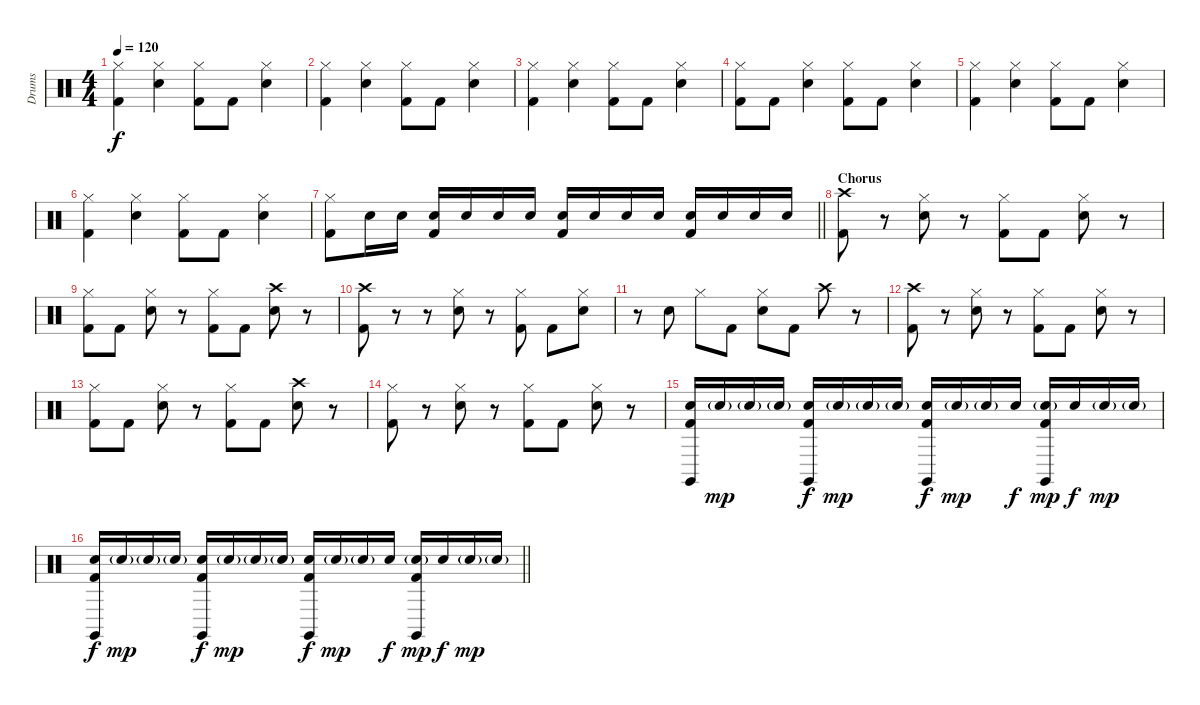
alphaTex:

\track ("Drums" "Drums") {instrument percussion}
\staff {score}
\articulation defaults
\ts (4 4)
\tempo 120
\clef neutral
\ks c
("Hi-Hat (closed)" "Kick (hit) 2").4{dy f} ("Hi-Hat (closed)" "Snare (hit) 2").4 ("Hi-Hat (closed)" "Kick (hit) 2").8 "Kick (hit) 2".8 ("Hi-Hat (closed)" "Snare (hit) 2").4 |
("Hi-Hat (closed)" "Kick (hit) 2").4 ("Hi-Hat (closed)" "Snare (hit) 2").4 ("Hi-Hat (closed)" "Kick (hit) 2").8 "Kick (hit) 2".8 ("Hi-Hat (closed)" "Snare (hit) 2").4 |
("Hi-Hat (closed)" "Kick (hit) 2").4 ("Hi-Hat (closed)" "Snare (hit) 2").4 ("Hi-Hat (closed)" "Kick (hit) 2").8 "Kick (hit) 2".8 ("Hi-Hat (closed)" "Snare (hit) 2").4 |
("Hi-Hat (closed)" "Kick (hit) 2").8 "Kick (hit) 2".8 ("Hi-Hat (closed)" "Snare (hit) 2").4 ("Hi-Hat (closed)" "Kick (hit) 2").8 "Kick (hit) 2".8 ("Hi-Hat (closed)" "Snare (hit) 2").4 |
("Hi-Hat (closed)" "Kick (hit) 2").4 ("Hi-Hat (closed)" "Snare (hit) 2").4 ("Hi-Hat (closed)" "Kick (hit) 2").8 "Kick (hit) 2".8 ("Hi-Hat (closed)" "Snare (hit) 2").4 |
("Hi-Hat (closed)" "Kick (hit) 2").4 ("Hi-Hat (closed)" "Snare (hit) 2").4 ("Hi-Hat (closed)" "Kick (hit) 2").8 "Kick (hit) 2".8 ("Hi-Hat (closed)" "Snare (hit) 2").4 |
\barLineRight lightlight
("Hi-Hat (closed)" "Kick (hit) 2").8 "Snare (hit) 2".16 "Snare (hit) 2".16 ("Snare (hit) 2" "Kick (hit) 2").16 "Snare (hit) 2".16 "Snare (hit) 2".16 "Snare (hit) 2".16 ("Snare (hit) 2" "Kick (hit) 2").16 "Snare (hit) 2".16 "Snare (hit) 2".16 "Snare (hit) 2".16 ("Snare (hit) 2" "Kick (hit) 2").16 "Snare (hit) 2".16 "Snare (hit) 2".16 "Snare (hit) 2".16 |
\section ("" "Chorus")
("Crash high (hit)" "Kick (hit) 2").8 r.8 ("Hi-Hat (closed)" "Snare (hit) 2").8 r.8 ("Hi-Hat (closed)" "Kick (hit) 2").8 "Kick (hit) 2".8 ("Hi-Hat (closed)" "Snare (hit) 2").8 r.8 |
("Hi-Hat (closed)" "Kick (hit) 2").8 "Kick (hit) 2".8 ("Hi-Hat (closed)" "Snare (hit) 2").8 r.8 ("Hi-Hat (closed)" "Kick (hit) 2").8 "Kick (hit) 2".8 ("Crash high (hit)" "Snare (hit) 2").8 r.8 |
("Crash high (hit)" "Kick (hit) 2").8 r.8 r.8 ("Hi-Hat (closed)" "Snare (hit) 2").8 r.8 ("Hi-Hat (closed)" "Kick (hit) 2").8 "Kick (hit) 2".8 ("Hi-Hat (closed)" "Snare (hit) 2").8 |
r.8 "Snare (hit) 2".8 "Hi-Hat (closed)".8 "Kick (hit) 2".8 ("Hi-Hat (closed)" "Snare (hit) 2").8 "Kick (hit) 2".8 "Crash high (hit)".8 r.8 |
("Crash high (hit)" "Kick (hit) 2").8 r.8 ("Hi-Hat (closed)" "Snare (hit) 2").8 r.8 ("Hi-Hat (closed)" "Kick (hit) 2").8 "Kick (hit) 2".8 ("Hi-Hat (closed)" "Snare (hit) 2").8 r.8 |
("Hi-Hat (closed)" "Kick (hit) 2").8 "Kick (hit) 2".8 ("Hi-Hat (closed)" "Snare (hit) 2").8 r.8 ("Hi-Hat (closed)" "Kick (hit) 2").8 "Kick (hit) 2".8 ("Crash high (hit)" "Snare (hit) 2").8 r.8 |
("Hi-Hat (closed)" "Kick (hit) 2").8 r.8 ("Hi-Hat (closed)" "Snare (hit) 2").8 r.8 ("Hi-Hat (closed)" "Kick (hit) 2").8 "Kick (hit) 2".8 ("Hi-Hat (closed)" "Snare (hit) 2").8 r.8 |
("Claves (hit)" "Electric Snare (hit)" "Kick (hit) 2").16{volume 10} "Electric Snare (hit)"{g}.16{dy mp} "Electric Snare (hit)"{g}.16 "Electric Snare (hit)"{g}.16 ("Claves (hit)" "Electric Snare (hit)" "Kick (hit) 2").16{dy f} "Electric Snare (hit)"{g}.16{dy mp} "Electric Snare (hit)"{g}.16 "Electric Snare (hit)"{g}.16 ("Claves (hit)" "Electric Snare (hit)" "Kick (hit) 2").16{dy f} "Electric Snare (hit)"{g}.16{dy mp} "Electric Snare (hit)"{g}.16 "Electric Snare (hit)".16{dy f} ("Claves (hit)" "Electric Snare (hit)"{g} "Kick (hit) 2").16{dy mp} "Electric Snare (hit)".16{dy f} "Electric Snare (hit)"{g}.16{dy mp} "Electric Snare (hit)"{g}.16 |
\barLineRight lightlight
("Claves (hit)" "Electric Snare (hit)" "Kick (hit) 2").16{dy f} "Electric Snare (hit)"{g}.16{dy mp} "Electric Snare (hit)"{g}.16 "Electric Snare (hit)"{g}.16 ("Claves (hit)" "Electric Snare (hit)" "Kick (hit) 2").16{dy f} "Electric Snare (hit)"{g}.16{dy mp} "Electric Snare (hit)"{g}.16 "Electric Snare (hit)"{g}.16 ("Claves (hit)" "Electric Snare (hit)" "Kick (hit) 2").16{dy f} "Electric Snare (hit)"{g}.16{dy mp} "Electric Snare (hit)"{g}.16 "Electric Snare (hit)".16{dy f} ("Claves (hit)" "Electric Snare (hit)"{g} "Kick (hit) 2").16{dy mp} "Electric Snare (hit)".16{dy f} "Electric Snare (hit)"{g}.16{dy mp} "Electric Snare (hit)"{g}.16
